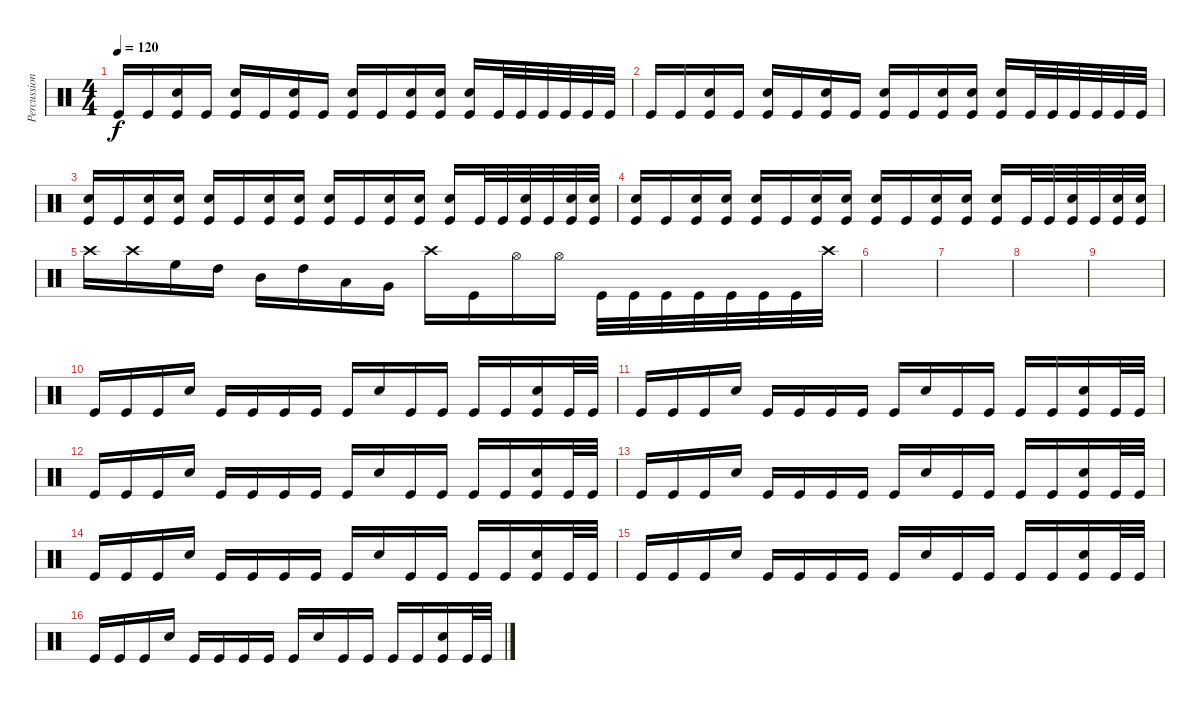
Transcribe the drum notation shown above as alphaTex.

\track ("Percussion" "Percussion") {instrument percussion}
\staff {score}
\articulation defaults
\ts (4 4)
\tempo 120
\clef neutral
\ks c "Kick (hit)".16{dy f} "Kick (hit)".16
("Kick (hit)" "Snare (hit) 2").16 "Kick (hit)".16 ("Kick (hit)" "Snare (hit) 2").16 "Kick (hit)".16 ("Kick (hit)" "Snare (hit) 2").16 "Kick (hit)".16 ("Kick (hit)" "Snare (hit) 2").16 "Kick (hit)".16 ("Kick (hit)" "Snare (hit) 2").16 ("Kick (hit)" "Snare (hit) 2").16 ("Kick (hit)" "Snare (hit) 2").16 "Kick (hit)".32 "Kick (hit)".32 "Kick (hit)".32 "Kick (hit)".32 "Kick (hit)".32 "Kick (hit)".32 |
"Kick (hit)".16 "Kick (hit)".16 ("Kick (hit)" "Snare (hit) 2").16 "Kick (hit)".16 ("Kick (hit)" "Snare (hit) 2").16 "Kick (hit)".16 ("Kick (hit)" "Snare (hit) 2").16 "Kick (hit)".16 ("Kick (hit)" "Snare (hit) 2").16 "Kick (hit)".16 ("Kick (hit)" "Snare (hit) 2").16 ("Kick (hit)" "Snare (hit) 2").16 ("Kick (hit)" "Snare (hit) 2").16 "Kick (hit)".32 "Kick (hit)".32 "Kick (hit)".32 "Kick (hit)".32 "Kick (hit)".32 "Kick (hit)".32 |
("Kick (hit)" "Snare (hit) 2").16 "Kick (hit)".16 ("Kick (hit)" "Snare (hit) 2").16 ("Kick (hit)" "Snare (hit) 2").16 ("Kick (hit)" "Snare (hit) 2").16 "Kick (hit)".16 ("Kick (hit)" "Snare (hit) 2").16 ("Kick (hit)" "Snare (hit) 2").16 ("Kick (hit)" "Snare (hit) 2").16 "Kick (hit)".16 ("Kick (hit)" "Snare (hit) 2").16 ("Kick (hit)" "Snare (hit) 2").16 ("Kick (hit)" "Snare (hit) 2").16 "Kick (hit)".32 "Kick (hit)".32 ("Kick (hit)" "Snare (hit) 2").32 "Kick (hit)".32 ("Kick (hit)" "Snare (hit) 2").32 ("Kick (hit)" "Snare (hit) 2").32 |
("Kick (hit)" "Snare (hit) 2").16 "Kick (hit)".16 ("Kick (hit)" "Snare (hit) 2").16 ("Kick (hit)" "Snare (hit) 2").16 ("Kick (hit)" "Snare (hit) 2").16 "Kick (hit)".16 ("Kick (hit)" "Snare (hit) 2").16 ("Kick (hit)" "Snare (hit) 2").16 ("Kick (hit)" "Snare (hit) 2").16 "Kick (hit)".16 ("Kick (hit)" "Snare (hit) 2").16 ("Kick (hit)" "Snare (hit) 2").16 ("Kick (hit)" "Snare (hit) 2").16 "Kick (hit)".32 "Kick (hit)".32 ("Kick (hit)" "Snare (hit) 2").32 "Kick (hit)".32 ("Kick (hit)" "Snare (hit) 2").32 ("Kick (hit)" "Snare (hit) 2").32 |
"Crash high (hit)".16 "Crash high (hit)".16 "High Floor Tom (hit)".16 "High Tom (hit)".16 "Mid Tom (hit)".16 "High Tom (hit)".16 "Low Tom (hit)".16 "Very Low Tom (hit)".16 "Crash high (hit)".16 "Kick (hit)".16 "Hi-Hat (open)".16 "Hi-Hat (open)".16 "Kick (hit)".32 "Kick (hit)".32 "Kick (hit)".32 "Kick (hit)".32 "Kick (hit)".32 "Kick (hit)".32 "Kick (hit)".32 "Crash high (hit)".32 |
|
|
|
|
"Kick (hit)".16 "Kick (hit)".16 "Kick (hit)".16 "Snare (hit) 2".16 "Kick (hit)".16 "Kick (hit)".16 "Kick (hit)".16 "Kick (hit)".16 "Kick (hit)".16 "Snare (hit) 2".16 "Kick (hit)".16 "Kick (hit)".16 "Kick (hit)".16 "Kick (hit)".16 ("Kick (hit)" "Snare (hit) 2").16 "Kick (hit)".32 "Kick (hit)".32 |
"Kick (hit)".16 "Kick (hit)".16 "Kick (hit)".16 "Snare (hit) 2".16 "Kick (hit)".16 "Kick (hit)".16 "Kick (hit)".16 "Kick (hit)".16 "Kick (hit)".16 "Snare (hit) 2".16 "Kick (hit)".16 "Kick (hit)".16 "Kick (hit)".16 "Kick (hit)".16 ("Kick (hit)" "Snare (hit) 2").16 "Kick (hit)".32 "Kick (hit)".32 |
"Kick (hit)".16 "Kick (hit)".16 "Kick (hit)".16 "Snare (hit) 2".16 "Kick (hit)".16 "Kick (hit)".16 "Kick (hit)".16 "Kick (hit)".16 "Kick (hit)".16 "Snare (hit) 2".16 "Kick (hit)".16 "Kick (hit)".16 "Kick (hit)".16 "Kick (hit)".16 ("Kick (hit)" "Snare (hit) 2").16 "Kick (hit)".32 "Kick (hit)".32 |
"Kick (hit)".16 "Kick (hit)".16 "Kick (hit)".16 "Snare (hit) 2".16 "Kick (hit)".16 "Kick (hit)".16 "Kick (hit)".16 "Kick (hit)".16 "Kick (hit)".16 "Snare (hit) 2".16 "Kick (hit)".16 "Kick (hit)".16 "Kick (hit)".16 "Kick (hit)".16 ("Kick (hit)" "Snare (hit) 2").16 "Kick (hit)".32 "Kick (hit)".32 |
"Kick (hit)".16 "Kick (hit)".16 "Kick (hit)".16 "Snare (hit) 2".16 "Kick (hit)".16 "Kick (hit)".16 "Kick (hit)".16 "Kick (hit)".16 "Kick (hit)".16 "Snare (hit) 2".16 "Kick (hit)".16 "Kick (hit)".16 "Kick (hit)".16 "Kick (hit)".16 ("Kick (hit)" "Snare (hit) 2").16 "Kick (hit)".32 "Kick (hit)".32 |
"Kick (hit)".16 "Kick (hit)".16 "Kick (hit)".16 "Snare (hit) 2".16 "Kick (hit)".16 "Kick (hit)".16 "Kick (hit)".16 "Kick (hit)".16 "Kick (hit)".16 "Snare (hit) 2".16 "Kick (hit)".16 "Kick (hit)".16 "Kick (hit)".16 "Kick (hit)".16 ("Kick (hit)" "Snare (hit) 2").16 "Kick (hit)".32 "Kick (hit)".32 |
"Kick (hit)".16 "Kick (hit)".16 "Kick (hit)".16 "Snare (hit) 2".16 "Kick (hit)".16 "Kick (hit)".16 "Kick (hit)".16 "Kick (hit)".16 "Kick (hit)".16 "Snare (hit) 2".16 "Kick (hit)".16 "Kick (hit)".16 "Kick (hit)".16 "Kick (hit)".16 ("Kick (hit)" "Snare (hit) 2").16 "Kick (hit)".32 "Kick (hit)".32
